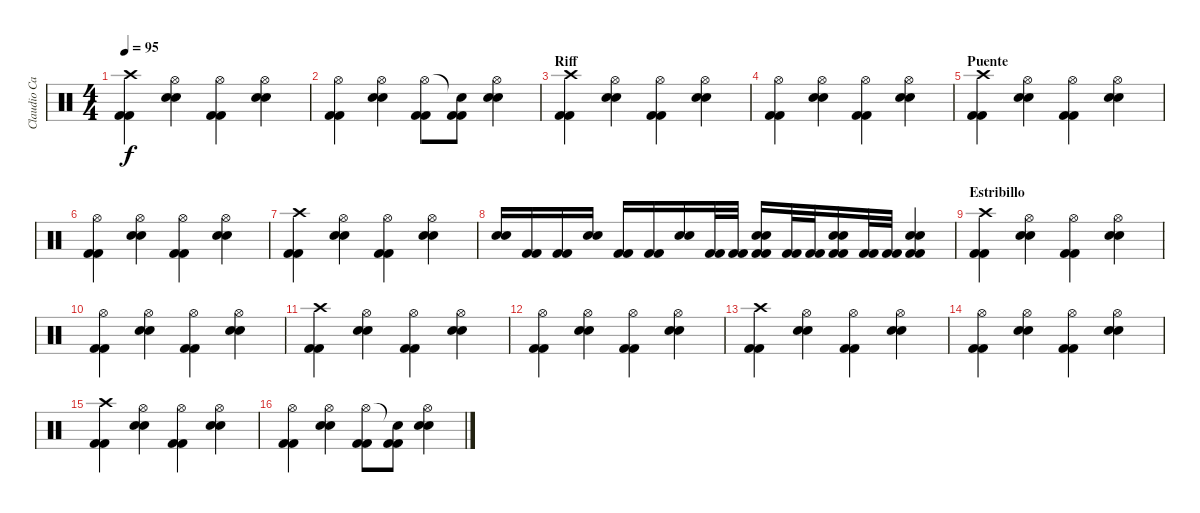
\track ("Claudio Cardaci (bateria)" "Claudio Ca") {instrument percussion}
\staff {score}
\articulation defaults
\ts (4 4)
\tempo 95
\clef neutral
\ks c
("Crash high (hit)" "Kick (hit) 2" "Kick (hit) 2").4{dy f} ("Hi-Hat (open)" "Snare (hit) 2" "Snare (hit) 2").4 ("Hi-Hat (open)" "Kick (hit) 2" "Kick (hit) 2").4 ("Hi-Hat (open)" "Snare (hit) 2" "Snare (hit) 2").4 |
("Hi-Hat (open)" "Kick (hit) 2" "Kick (hit) 2").4 ("Hi-Hat (open)" "Snare (hit) 2" "Snare (hit) 2").4 ("Hi-Hat (open)" "Kick (hit) 2" "Kick (hit) 2").8 ("Snare (hit)"{t} "Kick (hit) 2" "Kick (hit) 2").8 ("Hi-Hat (open)" "Snare (hit) 2" "Snare (hit) 2").4 |
\section ("" "Riff")
("Crash high (hit)" "Kick (hit) 2" "Kick (hit) 2").4 ("Hi-Hat (open)" "Snare (hit) 2" "Snare (hit) 2").4 ("Hi-Hat (open)" "Kick (hit) 2" "Kick (hit) 2").4 ("Hi-Hat (open)" "Snare (hit) 2" "Snare (hit) 2").4 |
("Hi-Hat (open)" "Kick (hit) 2" "Kick (hit) 2").4 ("Hi-Hat (open)" "Snare (hit) 2" "Snare (hit) 2").4 ("Hi-Hat (open)" "Kick (hit) 2" "Kick (hit) 2").4 ("Hi-Hat (open)" "Snare (hit) 2" "Snare (hit) 2").4 |
\section ("" "Puente")
("Crash high (hit)" "Kick (hit) 2" "Kick (hit) 2").4 ("Hi-Hat (open)" "Snare (hit) 2" "Snare (hit) 2").4 ("Hi-Hat (open)" "Kick (hit) 2" "Kick (hit) 2").4 ("Hi-Hat (open)" "Snare (hit) 2" "Snare (hit) 2").4 |
("Hi-Hat (open)" "Kick (hit) 2" "Kick (hit) 2").4 ("Hi-Hat (open)" "Snare (hit) 2" "Snare (hit) 2").4 ("Hi-Hat (open)" "Kick (hit) 2" "Kick (hit) 2").4 ("Hi-Hat (open)" "Snare (hit) 2" "Snare (hit) 2").4 |
("Crash high (hit)" "Kick (hit) 2" "Kick (hit) 2").4 ("Hi-Hat (open)" "Snare (hit) 2" "Snare (hit) 2").4 ("Hi-Hat (open)" "Kick (hit) 2" "Kick (hit) 2").4 ("Hi-Hat (open)" "Snare (hit) 2" "Snare (hit) 2").4 |
("Electric Snare (hit)" "Snare (hit) 2").16 ("Kick (hit) 2" "Kick (hit) 2").16 ("Kick (hit) 2" "Kick (hit) 2").16 ("Snare (hit) 2" "Snare (hit) 2").16 ("Kick (hit) 2" "Kick (hit) 2").16 ("Kick (hit) 2" "Kick (hit) 2").16 ("Snare (hit) 2" "Snare (hit) 2").16 ("Kick (hit) 2" "Kick (hit) 2").32 ("Kick (hit) 2" "Kick (hit) 2").32 ("Snare (hit) 2" "Snare (hit) 2" "Kick (hit) 2" "Kick (hit) 2").16 ("Kick (hit) 2" "Kick (hit) 2").32 ("Kick (hit) 2" "Kick (hit) 2").32 ("Snare (hit) 2" "Snare (hit) 2" "Kick (hit) 2" "Kick (hit) 2").16 ("Kick (hit) 2" "Kick (hit) 2").32 ("Kick (hit) 2" "Kick (hit) 2").32 ("Snare (hit) 2" "Snare (hit) 2" "Kick (hit) 2" "Kick (hit) 2").4 |
\section ("" "Estribillo")
("Crash high (hit)" "Kick (hit) 2" "Kick (hit) 2").4 ("Hi-Hat (open)" "Snare (hit) 2" "Snare (hit) 2").4 ("Hi-Hat (open)" "Kick (hit) 2" "Kick (hit) 2").4 ("Hi-Hat (open)" "Snare (hit) 2" "Snare (hit) 2").4 |
("Hi-Hat (open)" "Kick (hit) 2" "Kick (hit) 2").4 ("Hi-Hat (open)" "Snare (hit) 2" "Snare (hit) 2").4 ("Hi-Hat (open)" "Kick (hit) 2" "Kick (hit) 2").4 ("Hi-Hat (open)" "Snare (hit) 2" "Snare (hit) 2").4 |
("Crash high (hit)" "Kick (hit) 2" "Kick (hit) 2").4 ("Hi-Hat (open)" "Snare (hit) 2" "Snare (hit) 2").4 ("Hi-Hat (open)" "Kick (hit) 2" "Kick (hit) 2").4 ("Hi-Hat (open)" "Snare (hit) 2" "Snare (hit) 2").4 |
("Hi-Hat (open)" "Kick (hit) 2" "Kick (hit) 2").4 ("Hi-Hat (open)" "Snare (hit) 2" "Snare (hit) 2").4 ("Hi-Hat (open)" "Kick (hit) 2" "Kick (hit) 2").4 ("Hi-Hat (open)" "Snare (hit) 2" "Snare (hit) 2").4 |
("Crash high (hit)" "Kick (hit) 2" "Kick (hit) 2").4 ("Hi-Hat (open)" "Snare (hit) 2" "Snare (hit) 2").4 ("Hi-Hat (open)" "Kick (hit) 2" "Kick (hit) 2").4 ("Hi-Hat (open)" "Snare (hit) 2" "Snare (hit) 2").4 |
("Hi-Hat (open)" "Kick (hit) 2" "Kick (hit) 2").4 ("Hi-Hat (open)" "Snare (hit) 2" "Snare (hit) 2").4 ("Hi-Hat (open)" "Kick (hit) 2" "Kick (hit) 2").4 ("Hi-Hat (open)" "Snare (hit) 2" "Snare (hit) 2").4 |
("Crash high (hit)" "Kick (hit) 2" "Kick (hit) 2").4 ("Hi-Hat (open)" "Snare (hit) 2" "Snare (hit) 2").4 ("Hi-Hat (open)" "Kick (hit) 2" "Kick (hit) 2").4 ("Hi-Hat (open)" "Snare (hit) 2" "Snare (hit) 2").4 |
("Hi-Hat (open)" "Kick (hit) 2" "Kick (hit) 2").4 ("Hi-Hat (open)" "Snare (hit) 2" "Snare (hit) 2").4 ("Hi-Hat (open)" "Kick (hit) 2" "Kick (hit) 2").8 ("Snare (hit)"{t} "Kick (hit) 2" "Kick (hit) 2").8 ("Hi-Hat (open)" "Snare (hit) 2" "Snare (hit) 2").4
